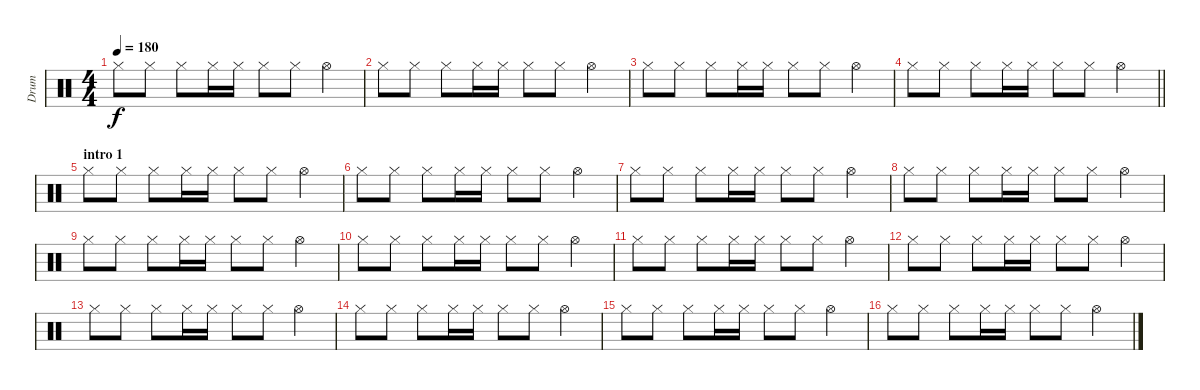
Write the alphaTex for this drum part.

\track ("Drum" "Drum") {instrument percussion}
\staff {score}
\articulation defaults
\ts (4 4)
\tempo 180
\clef neutral
\ks c "Hi-Hat (closed)".8{dy f} "Hi-Hat (closed)".8 "Hi-Hat (closed)".8 "Hi-Hat (closed)".16 "Hi-Hat (closed)".16 "Hi-Hat (closed)".8 "Hi-Hat (closed)".8 "Hi-Hat (open)".4
|
"Hi-Hat (closed)".8 "Hi-Hat (closed)".8 "Hi-Hat (closed)".8 "Hi-Hat (closed)".16 "Hi-Hat (closed)".16 "Hi-Hat (closed)".8 "Hi-Hat (closed)".8 "Hi-Hat (open)".4 |
"Hi-Hat (closed)".8 "Hi-Hat (closed)".8 "Hi-Hat (closed)".8 "Hi-Hat (closed)".16 "Hi-Hat (closed)".16 "Hi-Hat (closed)".8 "Hi-Hat (closed)".8 "Hi-Hat (open)".4 |
\barLineRight lightlight "Hi-Hat (closed)".8 "Hi-Hat (closed)".8 "Hi-Hat (closed)".8 "Hi-Hat (closed)".16 "Hi-Hat (closed)".16 "Hi-Hat (closed)".8 "Hi-Hat (closed)".8 "Hi-Hat (open)".4
|
\section ("" "intro 1")
"Hi-Hat (closed)".8 "Hi-Hat (closed)".8 "Hi-Hat (closed)".8 "Hi-Hat (closed)".16 "Hi-Hat (closed)".16 "Hi-Hat (closed)".8 "Hi-Hat (closed)".8 "Hi-Hat (open)".4 |
"Hi-Hat (closed)".8 "Hi-Hat (closed)".8 "Hi-Hat (closed)".8 "Hi-Hat (closed)".16 "Hi-Hat (closed)".16 "Hi-Hat (closed)".8 "Hi-Hat (closed)".8 "Hi-Hat (open)".4 |
"Hi-Hat (closed)".8 "Hi-Hat (closed)".8 "Hi-Hat (closed)".8 "Hi-Hat (closed)".16 "Hi-Hat (closed)".16 "Hi-Hat (closed)".8 "Hi-Hat (closed)".8 "Hi-Hat (open)".4 |
"Hi-Hat (closed)".8 "Hi-Hat (closed)".8 "Hi-Hat (closed)".8 "Hi-Hat (closed)".16 "Hi-Hat (closed)".16 "Hi-Hat (closed)".8 "Hi-Hat (closed)".8 "Hi-Hat (open)".4 |
"Hi-Hat (closed)".8 "Hi-Hat (closed)".8 "Hi-Hat (closed)".8 "Hi-Hat (closed)".16 "Hi-Hat (closed)".16 "Hi-Hat (closed)".8 "Hi-Hat (closed)".8 "Hi-Hat (open)".4 |
"Hi-Hat (closed)".8 "Hi-Hat (closed)".8 "Hi-Hat (closed)".8 "Hi-Hat (closed)".16 "Hi-Hat (closed)".16 "Hi-Hat (closed)".8 "Hi-Hat (closed)".8 "Hi-Hat (open)".4 |
"Hi-Hat (closed)".8 "Hi-Hat (closed)".8 "Hi-Hat (closed)".8 "Hi-Hat (closed)".16 "Hi-Hat (closed)".16 "Hi-Hat (closed)".8 "Hi-Hat (closed)".8 "Hi-Hat (open)".4 |
"Hi-Hat (closed)".8 "Hi-Hat (closed)".8 "Hi-Hat (closed)".8 "Hi-Hat (closed)".16 "Hi-Hat (closed)".16 "Hi-Hat (closed)".8 "Hi-Hat (closed)".8 "Hi-Hat (open)".4 |
"Hi-Hat (closed)".8 "Hi-Hat (closed)".8 "Hi-Hat (closed)".8 "Hi-Hat (closed)".16 "Hi-Hat (closed)".16 "Hi-Hat (closed)".8 "Hi-Hat (closed)".8 "Hi-Hat (open)".4 |
"Hi-Hat (closed)".8 "Hi-Hat (closed)".8 "Hi-Hat (closed)".8 "Hi-Hat (closed)".16 "Hi-Hat (closed)".16 "Hi-Hat (closed)".8 "Hi-Hat (closed)".8 "Hi-Hat (open)".4 |
"Hi-Hat (closed)".8 "Hi-Hat (closed)".8 "Hi-Hat (closed)".8 "Hi-Hat (closed)".16 "Hi-Hat (closed)".16 "Hi-Hat (closed)".8 "Hi-Hat (closed)".8 "Hi-Hat (open)".4 |
"Hi-Hat (closed)".8 "Hi-Hat (closed)".8 "Hi-Hat (closed)".8 "Hi-Hat (closed)".16 "Hi-Hat (closed)".16 "Hi-Hat (closed)".8 "Hi-Hat (closed)".8 "Hi-Hat (open)".4
